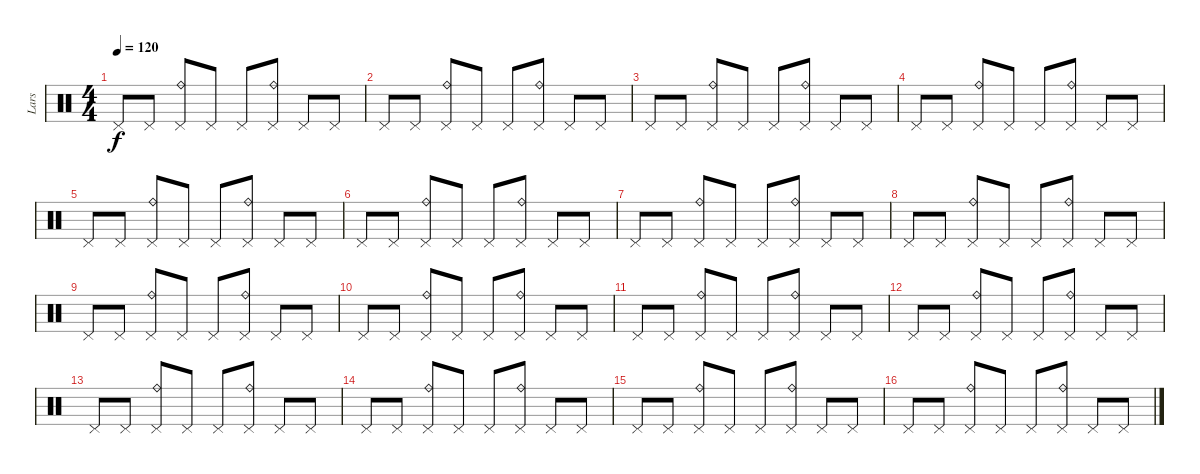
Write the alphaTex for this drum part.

\track ("Lars" "Lars") {instrument percussion}
\staff {score}
\articulation defaults
\ts (4 4)
\tempo 120
\clef neutral
\ks c "Pedal Hi-Hat (hit)".8{dy f} "Pedal Hi-Hat (hit)".8
("Pedal Hi-Hat (hit)" "Ride (bell)").8 "Pedal Hi-Hat (hit)".8 "Pedal Hi-Hat (hit)".8 ("Pedal Hi-Hat (hit)" "Ride (bell)").8 "Pedal Hi-Hat (hit)".8 "Pedal Hi-Hat (hit)".8 |
"Pedal Hi-Hat (hit)".8 "Pedal Hi-Hat (hit)".8 ("Pedal Hi-Hat (hit)" "Ride (bell)").8 "Pedal Hi-Hat (hit)".8 "Pedal Hi-Hat (hit)".8 ("Pedal Hi-Hat (hit)" "Ride (bell)").8 "Pedal Hi-Hat (hit)".8 "Pedal Hi-Hat (hit)".8 |
"Pedal Hi-Hat (hit)".8 "Pedal Hi-Hat (hit)".8 ("Pedal Hi-Hat (hit)" "Ride (bell)").8 "Pedal Hi-Hat (hit)".8 "Pedal Hi-Hat (hit)".8 ("Pedal Hi-Hat (hit)" "Ride (bell)").8 "Pedal Hi-Hat (hit)".8 "Pedal Hi-Hat (hit)".8 |
"Pedal Hi-Hat (hit)".8 "Pedal Hi-Hat (hit)".8 ("Pedal Hi-Hat (hit)" "Ride (bell)").8 "Pedal Hi-Hat (hit)".8 "Pedal Hi-Hat (hit)".8 ("Pedal Hi-Hat (hit)" "Ride (bell)").8 "Pedal Hi-Hat (hit)".8 "Pedal Hi-Hat (hit)".8 |
"Pedal Hi-Hat (hit)".8 "Pedal Hi-Hat (hit)".8 ("Pedal Hi-Hat (hit)" "Ride (bell)").8 "Pedal Hi-Hat (hit)".8 "Pedal Hi-Hat (hit)".8 ("Pedal Hi-Hat (hit)" "Ride (bell)").8 "Pedal Hi-Hat (hit)".8 "Pedal Hi-Hat (hit)".8 |
"Pedal Hi-Hat (hit)".8 "Pedal Hi-Hat (hit)".8 ("Pedal Hi-Hat (hit)" "Ride (bell)").8 "Pedal Hi-Hat (hit)".8 "Pedal Hi-Hat (hit)".8 ("Pedal Hi-Hat (hit)" "Ride (bell)").8 "Pedal Hi-Hat (hit)".8 "Pedal Hi-Hat (hit)".8 |
"Pedal Hi-Hat (hit)".8 "Pedal Hi-Hat (hit)".8 ("Pedal Hi-Hat (hit)" "Ride (bell)").8 "Pedal Hi-Hat (hit)".8 "Pedal Hi-Hat (hit)".8 ("Pedal Hi-Hat (hit)" "Ride (bell)").8 "Pedal Hi-Hat (hit)".8 "Pedal Hi-Hat (hit)".8 |
"Pedal Hi-Hat (hit)".8 "Pedal Hi-Hat (hit)".8 ("Pedal Hi-Hat (hit)" "Ride (bell)").8 "Pedal Hi-Hat (hit)".8 "Pedal Hi-Hat (hit)".8 ("Pedal Hi-Hat (hit)" "Ride (bell)").8 "Pedal Hi-Hat (hit)".8 "Pedal Hi-Hat (hit)".8 |
"Pedal Hi-Hat (hit)".8 "Pedal Hi-Hat (hit)".8 ("Pedal Hi-Hat (hit)" "Ride (bell)").8 "Pedal Hi-Hat (hit)".8 "Pedal Hi-Hat (hit)".8 ("Pedal Hi-Hat (hit)" "Ride (bell)").8 "Pedal Hi-Hat (hit)".8 "Pedal Hi-Hat (hit)".8 |
"Pedal Hi-Hat (hit)".8 "Pedal Hi-Hat (hit)".8 ("Pedal Hi-Hat (hit)" "Ride (bell)").8 "Pedal Hi-Hat (hit)".8 "Pedal Hi-Hat (hit)".8 ("Pedal Hi-Hat (hit)" "Ride (bell)").8 "Pedal Hi-Hat (hit)".8 "Pedal Hi-Hat (hit)".8 |
"Pedal Hi-Hat (hit)".8 "Pedal Hi-Hat (hit)".8 ("Pedal Hi-Hat (hit)" "Ride (bell)").8 "Pedal Hi-Hat (hit)".8 "Pedal Hi-Hat (hit)".8 ("Pedal Hi-Hat (hit)" "Ride (bell)").8 "Pedal Hi-Hat (hit)".8 "Pedal Hi-Hat (hit)".8 |
"Pedal Hi-Hat (hit)".8 "Pedal Hi-Hat (hit)".8 ("Pedal Hi-Hat (hit)" "Ride (bell)").8 "Pedal Hi-Hat (hit)".8 "Pedal Hi-Hat (hit)".8 ("Pedal Hi-Hat (hit)" "Ride (bell)").8 "Pedal Hi-Hat (hit)".8 "Pedal Hi-Hat (hit)".8 |
"Pedal Hi-Hat (hit)".8 "Pedal Hi-Hat (hit)".8 ("Pedal Hi-Hat (hit)" "Ride (bell)").8 "Pedal Hi-Hat (hit)".8 "Pedal Hi-Hat (hit)".8 ("Pedal Hi-Hat (hit)" "Ride (bell)").8 "Pedal Hi-Hat (hit)".8 "Pedal Hi-Hat (hit)".8 |
"Pedal Hi-Hat (hit)".8 "Pedal Hi-Hat (hit)".8 ("Pedal Hi-Hat (hit)" "Ride (bell)").8 "Pedal Hi-Hat (hit)".8 "Pedal Hi-Hat (hit)".8 ("Pedal Hi-Hat (hit)" "Ride (bell)").8 "Pedal Hi-Hat (hit)".8 "Pedal Hi-Hat (hit)".8 |
"Pedal Hi-Hat (hit)".8 "Pedal Hi-Hat (hit)".8 ("Pedal Hi-Hat (hit)" "Ride (bell)").8 "Pedal Hi-Hat (hit)".8 "Pedal Hi-Hat (hit)".8 ("Pedal Hi-Hat (hit)" "Ride (bell)").8 "Pedal Hi-Hat (hit)".8 "Pedal Hi-Hat (hit)".8 |
"Pedal Hi-Hat (hit)".8 "Pedal Hi-Hat (hit)".8 ("Pedal Hi-Hat (hit)" "Ride (bell)").8 "Pedal Hi-Hat (hit)".8 "Pedal Hi-Hat (hit)".8 ("Pedal Hi-Hat (hit)" "Ride (bell)").8 "Pedal Hi-Hat (hit)".8 "Pedal Hi-Hat (hit)".8
